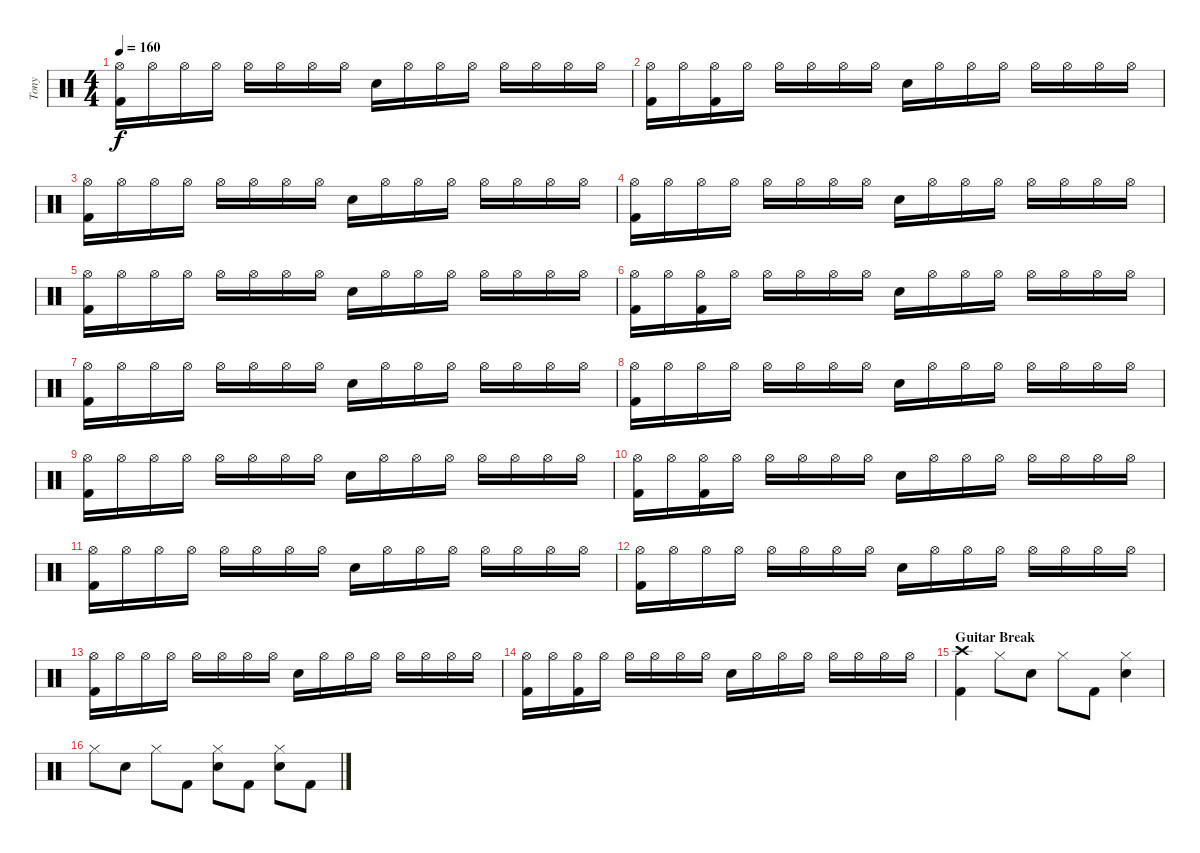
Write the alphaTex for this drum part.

\track ("Tony" "Tony") {instrument percussion}
\staff {score}
\articulation defaults
\ts (4 4)
\tempo 160
\clef neutral
\ks c
("Kick (hit) 2" "Hi-Hat (open)").16{dy f volume 12} "Hi-Hat (open)".16 "Hi-Hat (open)".16 "Hi-Hat (open)".16 "Hi-Hat (open)".16 "Hi-Hat (open)".16 "Hi-Hat (open)".16 "Hi-Hat (open)".16 "Snare (hit) 2".16 "Hi-Hat (open)".16 "Hi-Hat (open)".16 "Hi-Hat (open)".16 "Hi-Hat (open)".16 "Hi-Hat (open)".16 "Hi-Hat (open)".16 "Hi-Hat (open)".16 |
("Kick (hit) 2" "Hi-Hat (open)").16 "Hi-Hat (open)".16 ("Kick (hit) 2" "Hi-Hat (open)").16 "Hi-Hat (open)".16 "Hi-Hat (open)".16 "Hi-Hat (open)".16 "Hi-Hat (open)".16 "Hi-Hat (open)".16 "Snare (hit) 2".16 "Hi-Hat (open)".16 "Hi-Hat (open)".16 "Hi-Hat (open)".16 "Hi-Hat (open)".16 "Hi-Hat (open)".16 "Hi-Hat (open)".16 "Hi-Hat (open)".16 |
("Kick (hit) 2" "Hi-Hat (open)").16{volume 12} "Hi-Hat (open)".16 "Hi-Hat (open)".16 "Hi-Hat (open)".16 "Hi-Hat (open)".16 "Hi-Hat (open)".16 "Hi-Hat (open)".16 "Hi-Hat (open)".16 "Snare (hit) 2".16 "Hi-Hat (open)".16 "Hi-Hat (open)".16 "Hi-Hat (open)".16 "Hi-Hat (open)".16 "Hi-Hat (open)".16 "Hi-Hat (open)".16 "Hi-Hat (open)".16 |
("Kick (hit) 2" "Hi-Hat (open)").16 "Hi-Hat (open)".16 "Hi-Hat (open)".16 "Hi-Hat (open)".16 "Hi-Hat (open)".16 "Hi-Hat (open)".16 "Hi-Hat (open)".16 "Hi-Hat (open)".16 "Snare (hit) 2".16 "Hi-Hat (open)".16 "Hi-Hat (open)".16 "Hi-Hat (open)".16 "Hi-Hat (open)".16 "Hi-Hat (open)".16 "Hi-Hat (open)".16 "Hi-Hat (open)".16 |
("Kick (hit) 2" "Hi-Hat (open)").16{volume 12} "Hi-Hat (open)".16 "Hi-Hat (open)".16 "Hi-Hat (open)".16 "Hi-Hat (open)".16 "Hi-Hat (open)".16 "Hi-Hat (open)".16 "Hi-Hat (open)".16 "Snare (hit) 2".16 "Hi-Hat (open)".16 "Hi-Hat (open)".16 "Hi-Hat (open)".16 "Hi-Hat (open)".16 "Hi-Hat (open)".16 "Hi-Hat (open)".16 "Hi-Hat (open)".16 |
("Kick (hit) 2" "Hi-Hat (open)").16 "Hi-Hat (open)".16 ("Kick (hit) 2" "Hi-Hat (open)").16 "Hi-Hat (open)".16 "Hi-Hat (open)".16 "Hi-Hat (open)".16 "Hi-Hat (open)".16 "Hi-Hat (open)".16 "Snare (hit) 2".16 "Hi-Hat (open)".16 "Hi-Hat (open)".16 "Hi-Hat (open)".16 "Hi-Hat (open)".16 "Hi-Hat (open)".16 "Hi-Hat (open)".16 "Hi-Hat (open)".16 |
("Kick (hit) 2" "Hi-Hat (open)").16{volume 12} "Hi-Hat (open)".16 "Hi-Hat (open)".16 "Hi-Hat (open)".16 "Hi-Hat (open)".16 "Hi-Hat (open)".16 "Hi-Hat (open)".16 "Hi-Hat (open)".16 "Snare (hit) 2".16 "Hi-Hat (open)".16 "Hi-Hat (open)".16 "Hi-Hat (open)".16 "Hi-Hat (open)".16 "Hi-Hat (open)".16 "Hi-Hat (open)".16 "Hi-Hat (open)".16 |
("Kick (hit) 2" "Hi-Hat (open)").16 "Hi-Hat (open)".16 "Hi-Hat (open)".16 "Hi-Hat (open)".16 "Hi-Hat (open)".16 "Hi-Hat (open)".16 "Hi-Hat (open)".16 "Hi-Hat (open)".16 "Snare (hit) 2".16 "Hi-Hat (open)".16 "Hi-Hat (open)".16 "Hi-Hat (open)".16 "Hi-Hat (open)".16 "Hi-Hat (open)".16 "Hi-Hat (open)".16 "Hi-Hat (open)".16 |
("Kick (hit) 2" "Hi-Hat (open)").16{volume 12} "Hi-Hat (open)".16 "Hi-Hat (open)".16 "Hi-Hat (open)".16 "Hi-Hat (open)".16 "Hi-Hat (open)".16 "Hi-Hat (open)".16 "Hi-Hat (open)".16 "Snare (hit) 2".16 "Hi-Hat (open)".16 "Hi-Hat (open)".16 "Hi-Hat (open)".16 "Hi-Hat (open)".16 "Hi-Hat (open)".16 "Hi-Hat (open)".16 "Hi-Hat (open)".16 |
("Kick (hit) 2" "Hi-Hat (open)").16 "Hi-Hat (open)".16 ("Kick (hit) 2" "Hi-Hat (open)").16 "Hi-Hat (open)".16 "Hi-Hat (open)".16 "Hi-Hat (open)".16 "Hi-Hat (open)".16 "Hi-Hat (open)".16 "Snare (hit) 2".16 "Hi-Hat (open)".16 "Hi-Hat (open)".16 "Hi-Hat (open)".16 "Hi-Hat (open)".16 "Hi-Hat (open)".16 "Hi-Hat (open)".16 "Hi-Hat (open)".16 |
("Kick (hit) 2" "Hi-Hat (open)").16{volume 12} "Hi-Hat (open)".16 "Hi-Hat (open)".16 "Hi-Hat (open)".16 "Hi-Hat (open)".16 "Hi-Hat (open)".16 "Hi-Hat (open)".16 "Hi-Hat (open)".16 "Snare (hit) 2".16 "Hi-Hat (open)".16 "Hi-Hat (open)".16 "Hi-Hat (open)".16 "Hi-Hat (open)".16 "Hi-Hat (open)".16 "Hi-Hat (open)".16 "Hi-Hat (open)".16 |
("Kick (hit) 2" "Hi-Hat (open)").16 "Hi-Hat (open)".16 "Hi-Hat (open)".16 "Hi-Hat (open)".16 "Hi-Hat (open)".16 "Hi-Hat (open)".16 "Hi-Hat (open)".16 "Hi-Hat (open)".16 "Snare (hit) 2".16 "Hi-Hat (open)".16 "Hi-Hat (open)".16 "Hi-Hat (open)".16 "Hi-Hat (open)".16 "Hi-Hat (open)".16 "Hi-Hat (open)".16 "Hi-Hat (open)".16 |
("Kick (hit) 2" "Hi-Hat (open)").16{volume 12} "Hi-Hat (open)".16 "Hi-Hat (open)".16 "Hi-Hat (open)".16 "Hi-Hat (open)".16 "Hi-Hat (open)".16 "Hi-Hat (open)".16 "Hi-Hat (open)".16 "Snare (hit) 2".16 "Hi-Hat (open)".16 "Hi-Hat (open)".16 "Hi-Hat (open)".16 "Hi-Hat (open)".16 "Hi-Hat (open)".16 "Hi-Hat (open)".16 "Hi-Hat (open)".16 |
("Kick (hit) 2" "Hi-Hat (open)").16 "Hi-Hat (open)".16 ("Kick (hit) 2" "Hi-Hat (open)").16 "Hi-Hat (open)".16 "Hi-Hat (open)".16 "Hi-Hat (open)".16 "Hi-Hat (open)".16 "Hi-Hat (open)".16 "Snare (hit) 2".16 "Hi-Hat (open)".16 "Hi-Hat (open)".16 "Hi-Hat (open)".16 "Hi-Hat (open)".16 "Hi-Hat (open)".16 "Hi-Hat (open)".16 "Hi-Hat (open)".16 |
\section ("" "Guitar Break")
("Kick (hit) 2" "Crash high (hit)").4{volume 14} "Hi-Hat (closed)".8 "Snare (hit) 2".8 "Hi-Hat (closed)".8 "Kick (hit) 2".8 ("Snare (hit) 2" "Hi-Hat (closed)").4 |
"Hi-Hat (closed)".8 "Snare (hit) 2".8 "Hi-Hat (closed)".8 "Kick (hit) 2".8 ("Snare (hit) 2" "Hi-Hat (closed)").8 "Kick (hit) 2".8 ("Snare (hit) 2" "Hi-Hat (closed)").8 "Kick (hit) 2".8
